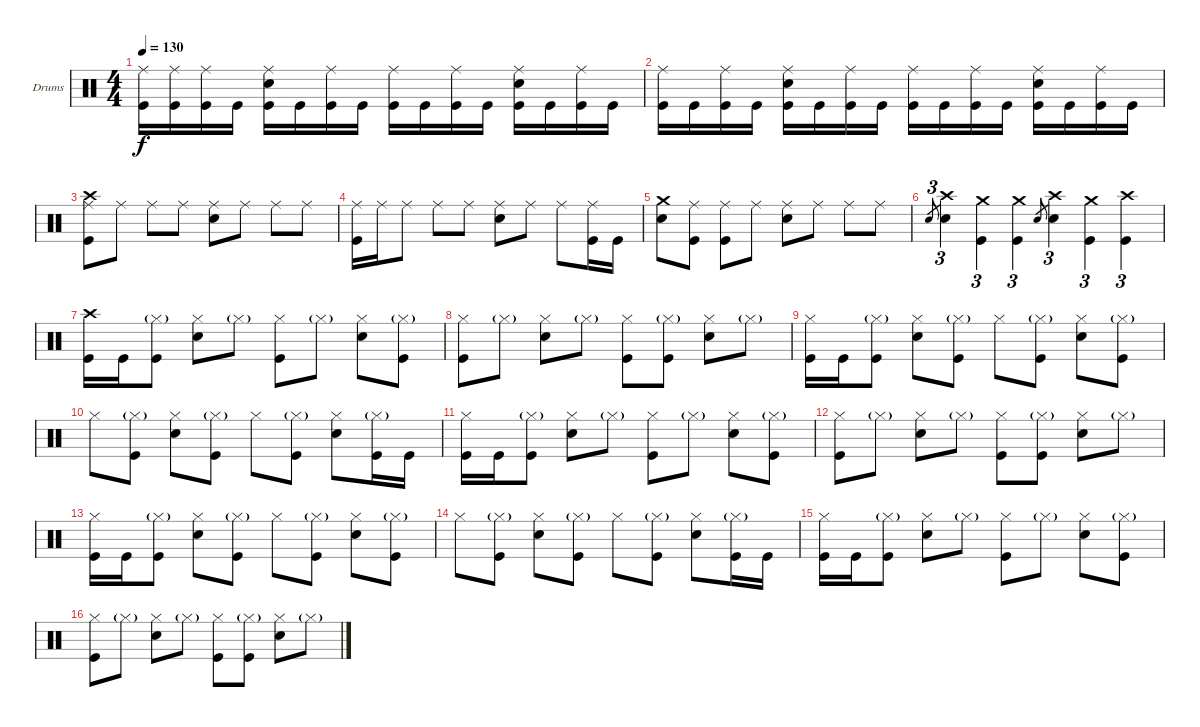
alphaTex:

\bracketExtendMode groupsimilarinstruments
\firstSystemTrackNameOrientation horizontal
\otherSystemsTrackNameOrientation horizontal
\track ("Drumkit" "Drums") {instrument percussion}
\staff {score}
\articulation defaults
\ts (4 4)
\tempo 130
\clef neutral
\ks c
("Kick (hit)" "Ride (middle)").16{dy f} ("Kick (hit)" "Ride (middle)").16 ("Kick (hit)" "Ride (middle)").16 "Kick (hit)".16 ("Kick (hit)" "Snare (hit) 2" "Ride (middle)").16 "Kick (hit)".16 ("Kick (hit)" "Ride (middle)").16 "Kick (hit)".16 ("Kick (hit)" "Ride (middle)").16 "Kick (hit)".16 ("Kick (hit)" "Ride (middle)").16 "Kick (hit)".16 ("Kick (hit)" "Ride (middle)" "Snare (hit) 2").16 "Kick (hit)".16 ("Kick (hit)" "Ride (middle)").16 "Kick (hit)".16 |
("Kick (hit)" "Ride (middle)").16 "Kick (hit)".16 ("Kick (hit)" "Ride (middle)").16 "Kick (hit)".16 ("Kick (hit)" "Ride (middle)" "Snare (hit) 2").16 "Kick (hit)".16 ("Kick (hit)" "Ride (middle)").16 "Kick (hit)".16 ("Kick (hit)" "Ride (middle)").16 "Kick (hit)".16 ("Kick (hit)" "Ride (middle)").16 "Kick (hit)".16 ("Kick (hit)" "Ride (middle)" "Snare (hit) 2").16 "Kick (hit)".16 ("Kick (hit)" "Ride (middle)").16 "Kick (hit)".16 |
("Crash high (hit)" "Ride (middle)" "Kick (hit)").8 "Ride (middle)".8 "Ride (middle)".8 "Ride (middle)".8 ("Ride (middle)" "Snare (hit) 2").8 "Ride (middle)".8 "Ride (middle)".8 "Ride (middle)".8 |
("Ride (middle)" "Kick (hit)").16 "Ride (middle)".16 "Ride (middle)".8 "Ride (middle)".8 "Ride (middle)".8 ("Ride (middle)" "Snare (hit) 2").8 "Ride (middle)".8 "Ride (middle)".8 ("Ride (middle)" "Kick (hit)").16 "Kick (hit)".16 |
("Snare (hit) 2" "Crash medium (hit)").8 ("Ride (middle)" "Kick (hit)").8 ("Ride (middle)" "Kick (hit)").8 "Ride (middle)".8 ("Ride (middle)" "Snare (hit) 2").8 "Ride (middle)".8 "Ride (middle)".8 "Ride (middle)".8 |
"Snare (hit) 2".8{tu (3 2) gr} ("Snare (hit) 2" "Crash high (hit)").4{tu (3 2)} ("Kick (hit)" "Crash medium (hit)").4{tu (3 2)} ("Kick (hit)" "Crash medium (hit)").4{tu (3 2)} "Snare (hit) 2".8{tu (3 2) gr} ("Snare (hit) 2" "Crash high (hit)").4{tu (3 2)} ("Kick (hit)" "Crash medium (hit)").4{tu (3 2)} ("Kick (hit)" "Crash high (hit)").4{tu (3 2)} |
("Crash high (hit)" "Kick (hit)").16 "Kick (hit)".16 ("Kick (hit)" "Hi-Hat (closed)"{g}).8 ("Snare (hit) 2" "Hi-Hat (closed)").8 "Hi-Hat (closed)"{g}.8 ("Hi-Hat (closed)" "Kick (hit)").8 "Hi-Hat (closed)"{g}.8 ("Snare (hit) 2" "Hi-Hat (closed)").8 ("Hi-Hat (closed)"{g} "Kick (hit)").8 |
("Hi-Hat (closed)" "Kick (hit)").8 "Hi-Hat (closed)"{g}.8 ("Snare (hit) 2" "Hi-Hat (closed)").8 "Hi-Hat (closed)"{g}.8 ("Hi-Hat (closed)" "Kick (hit)").8 ("Kick (hit)" "Hi-Hat (closed)"{g}).8 ("Snare (hit) 2" "Hi-Hat (closed)").8 "Hi-Hat (closed)"{g}.8 |
("Kick (hit)" "Hi-Hat (closed)").16 "Kick (hit)".16 ("Kick (hit)" "Hi-Hat (closed)"{g}).8 ("Snare (hit) 2" "Hi-Hat (closed)").8 ("Kick (hit)" "Hi-Hat (closed)"{g}).8 "Hi-Hat (closed)".8 ("Kick (hit)" "Hi-Hat (closed)"{g}).8 ("Snare (hit) 2" "Hi-Hat (closed)").8 ("Kick (hit)" "Hi-Hat (closed)"{g}).8 |
"Hi-Hat (closed)".8 ("Kick (hit)" "Hi-Hat (closed)"{g}).8 ("Snare (hit) 2" "Hi-Hat (closed)").8 ("Kick (hit)" "Hi-Hat (closed)"{g}).8 "Hi-Hat (closed)".8 ("Kick (hit)" "Hi-Hat (closed)"{g}).8 ("Snare (hit) 2" "Hi-Hat (closed)").8 ("Hi-Hat (closed)"{g} "Kick (hit)").16 "Kick (hit)".16 |
("Kick (hit)" "Hi-Hat (closed)").16 "Kick (hit)".16 ("Kick (hit)" "Hi-Hat (closed)"{g}).8 ("Snare (hit) 2" "Hi-Hat (closed)").8 "Hi-Hat (closed)"{g}.8 ("Hi-Hat (closed)" "Kick (hit)").8 "Hi-Hat (closed)"{g}.8 ("Snare (hit) 2" "Hi-Hat (closed)").8 ("Hi-Hat (closed)"{g} "Kick (hit)").8 |
("Hi-Hat (closed)" "Kick (hit)").8 "Hi-Hat (closed)"{g}.8 ("Snare (hit) 2" "Hi-Hat (closed)").8 "Hi-Hat (closed)"{g}.8 ("Hi-Hat (closed)" "Kick (hit)").8 ("Kick (hit)" "Hi-Hat (closed)"{g}).8 ("Snare (hit) 2" "Hi-Hat (closed)").8 "Hi-Hat (closed)"{g}.8 |
("Kick (hit)" "Hi-Hat (closed)").16 "Kick (hit)".16 ("Kick (hit)" "Hi-Hat (closed)"{g}).8 ("Snare (hit) 2" "Hi-Hat (closed)").8 ("Kick (hit)" "Hi-Hat (closed)"{g}).8 "Hi-Hat (closed)".8 ("Kick (hit)" "Hi-Hat (closed)"{g}).8 ("Snare (hit) 2" "Hi-Hat (closed)").8 ("Kick (hit)" "Hi-Hat (closed)"{g}).8 |
"Hi-Hat (closed)".8 ("Kick (hit)" "Hi-Hat (closed)"{g}).8 ("Snare (hit) 2" "Hi-Hat (closed)").8 ("Kick (hit)" "Hi-Hat (closed)"{g}).8 "Hi-Hat (closed)".8 ("Kick (hit)" "Hi-Hat (closed)"{g}).8 ("Snare (hit) 2" "Hi-Hat (closed)").8 ("Hi-Hat (closed)"{g} "Kick (hit)").16 "Kick (hit)".16 |
("Kick (hit)" "Hi-Hat (closed)").16 "Kick (hit)".16 ("Kick (hit)" "Hi-Hat (closed)"{g}).8 ("Snare (hit) 2" "Hi-Hat (closed)").8 "Hi-Hat (closed)"{g}.8 ("Hi-Hat (closed)" "Kick (hit)").8 "Hi-Hat (closed)"{g}.8 ("Snare (hit) 2" "Hi-Hat (closed)").8 ("Hi-Hat (closed)"{g} "Kick (hit)").8 |
("Hi-Hat (closed)" "Kick (hit)").8 "Hi-Hat (closed)"{g}.8 ("Snare (hit) 2" "Hi-Hat (closed)").8 "Hi-Hat (closed)"{g}.8 ("Hi-Hat (closed)" "Kick (hit)").8 ("Kick (hit)" "Hi-Hat (closed)"{g}).8 ("Snare (hit) 2" "Hi-Hat (closed)").8 "Hi-Hat (closed)"{g}.8
